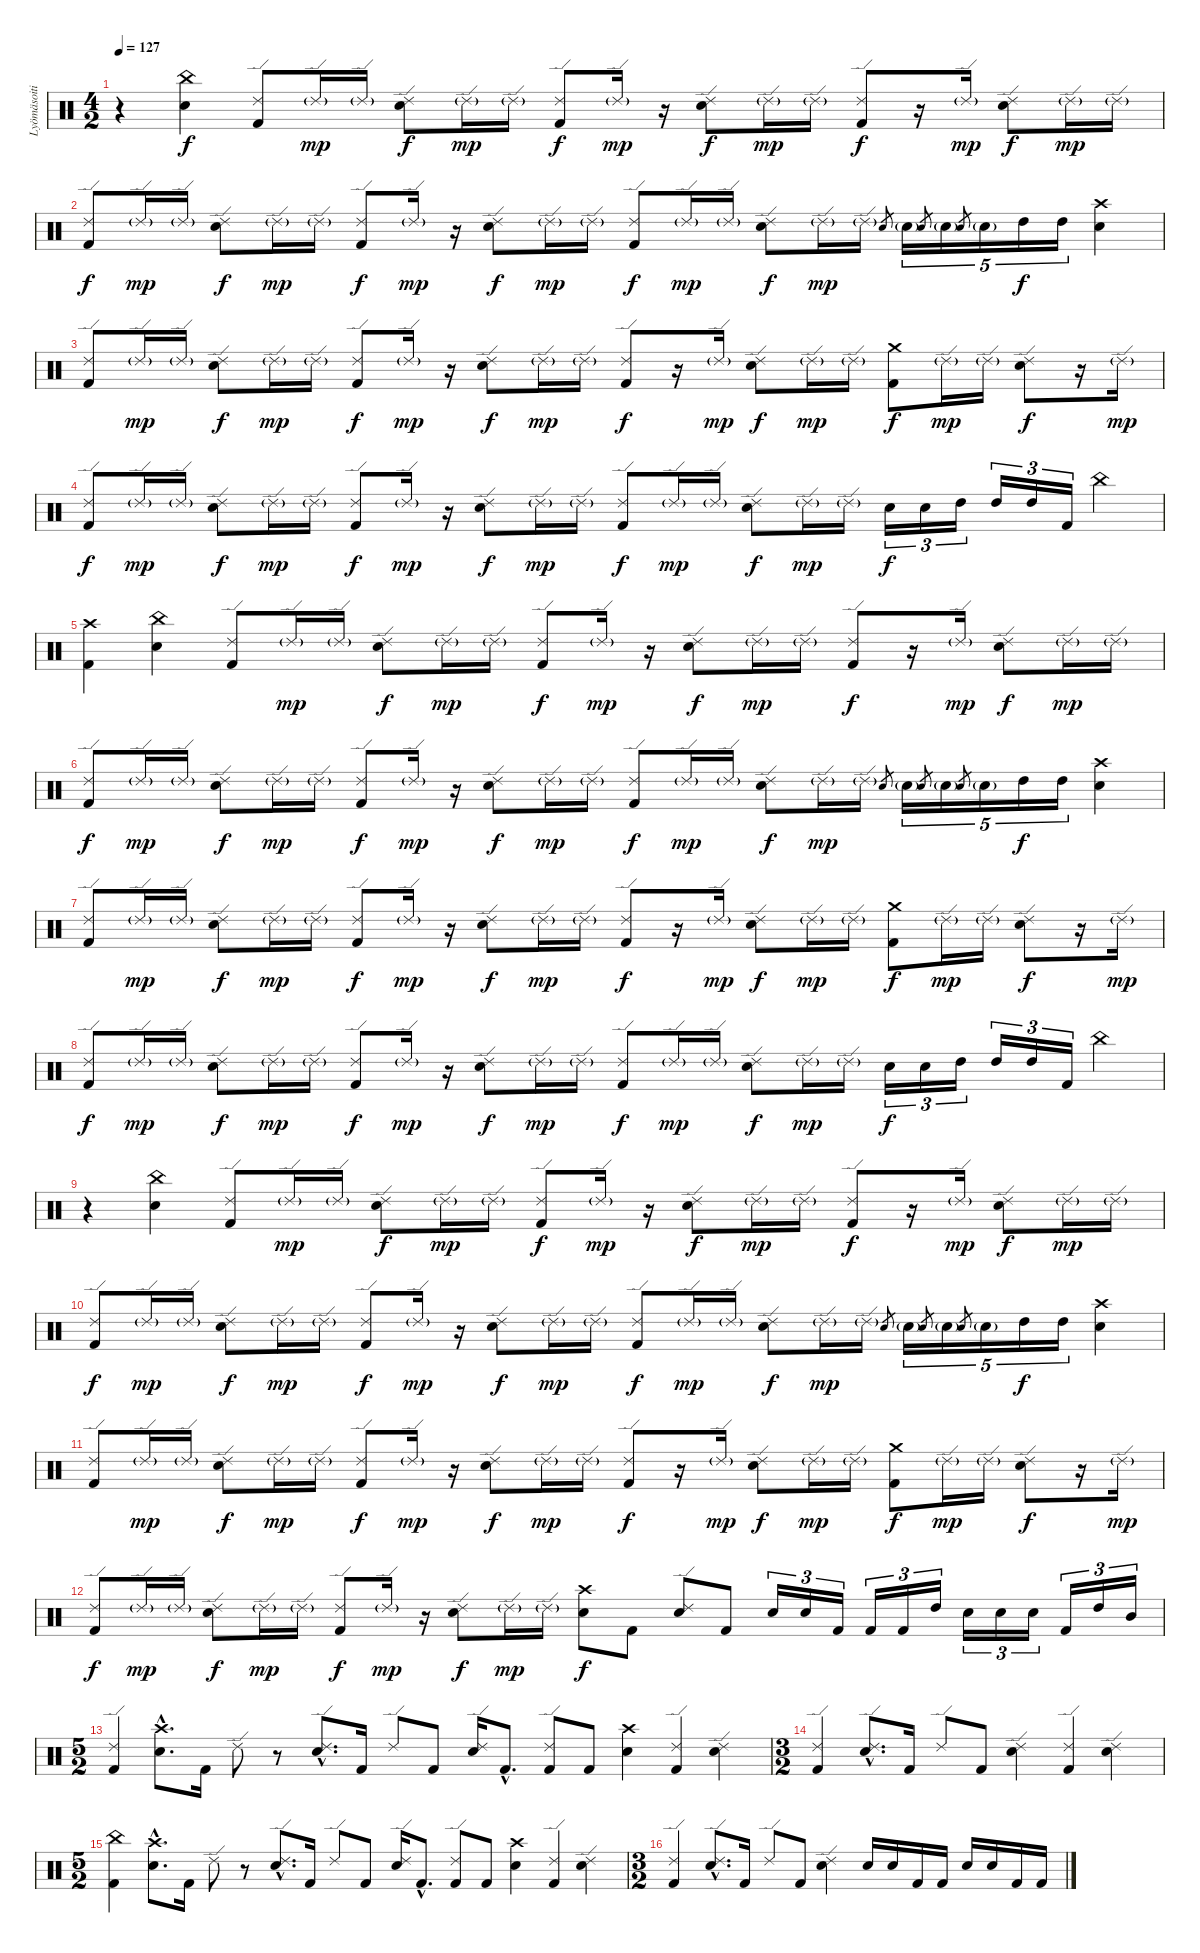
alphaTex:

\track ("Lyömäsoitin" "Lyömäsoiti") {instrument percussion}
\staff {score}
\articulation defaults
\ts (4 2)
\tempo 127
\clef neutral
\ks c
r.4{dy f} ("China (hit)" "Electric Snare (hit)").4 ("Ride (edge) 2" "Kick (hit) 2").8 "Ride (edge) 2"{g}.16{dy mp} "Ride (edge) 2"{g}.16 ("Ride (edge) 2" "Electric Snare (hit)").8{dy f} "Ride (edge) 2"{g}.16{dy mp} "Ride (edge) 2"{g}.16 ("Ride (edge) 2" "Kick (hit) 2").8{dy f} "Ride (edge) 2"{g}.16{dy mp} r.16 ("Ride (edge) 2" "Electric Snare (hit)").8{dy f} "Ride (edge) 2"{g}.16{dy mp} "Ride (edge) 2"{g}.16 ("Ride (edge) 2" "Kick (hit) 2").8{dy f} r.16 "Ride (edge) 2"{g}.16{dy mp} ("Ride (edge) 2" "Electric Snare (hit)").8{dy f} "Ride (edge) 2"{g}.16{dy mp} "Ride (edge) 2"{g}.16 |
("Ride (edge) 2" "Kick (hit) 2").8{dy f} "Ride (edge) 2"{g}.16{dy mp} "Ride (edge) 2"{g}.16 ("Ride (edge) 2" "Electric Snare (hit)").8{dy f} "Ride (edge) 2"{g}.16{dy mp} "Ride (edge) 2"{g}.16 ("Ride (edge) 2" "Kick (hit) 2").8{dy f} "Ride (edge) 2"{g}.16{dy mp} r.16 ("Ride (edge) 2" "Electric Snare (hit)").8{dy f} "Ride (edge) 2"{g}.16{dy mp} "Ride (edge) 2"{g}.16 ("Ride (edge) 2" "Kick (hit) 2").8{dy f} "Ride (edge) 2"{g}.16{dy mp} "Ride (edge) 2"{g}.16 ("Ride (edge) 2" "Electric Snare (hit)").8{dy f} "Ride (edge) 2"{g}.16{dy mp} "Ride (edge) 2"{g}.16 "Electric Snare (hit)".8{gr} "Electric Snare (hit)"{g}.16{tu (5 4)} "Electric Snare (hit)".8{gr} "Electric Snare (hit)"{g}.16{tu (5 4)} "Electric Snare (hit)".8{gr} "Electric Snare (hit)"{g}.16{tu (5 4)} "High Tom (hit)".16{tu (5 4) dy f} "High Tom (hit)".16{tu (5 4)} ("Crash high (hit)" "Electric Snare (hit)").4 |
("Ride (edge) 2" "Kick (hit) 2").8 "Ride (edge) 2"{g}.16{dy mp} "Ride (edge) 2"{g}.16 ("Ride (edge) 2" "Electric Snare (hit)").8{dy f} "Ride (edge) 2"{g}.16{dy mp} "Ride (edge) 2"{g}.16 ("Ride (edge) 2" "Kick (hit) 2").8{dy f} "Ride (edge) 2"{g}.16{dy mp} r.16 ("Ride (edge) 2" "Electric Snare (hit)").8{dy f} "Ride (edge) 2"{g}.16{dy mp} "Ride (edge) 2"{g}.16 ("Ride (edge) 2" "Kick (hit) 2").8{dy f} r.16 "Ride (edge) 2"{g}.16{dy mp} ("Ride (edge) 2" "Electric Snare (hit)").8{dy f} "Ride (edge) 2"{g}.16{dy mp} "Ride (edge) 2"{g}.16 ("Crash medium (hit)" "Kick (hit) 2").8{dy f} "Ride (edge) 2"{g}.16{dy mp} "Ride (edge) 2"{g}.16 ("Ride (edge) 2" "Electric Snare (hit)").8{dy f} r.16 "Ride (edge) 2"{g}.16{dy mp} |
("Ride (edge) 2" "Kick (hit) 2").8{dy f} "Ride (edge) 2"{g}.16{dy mp} "Ride (edge) 2"{g}.16 ("Ride (edge) 2" "Electric Snare (hit)").8{dy f} "Ride (edge) 2"{g}.16{dy mp} "Ride (edge) 2"{g}.16 ("Ride (edge) 2" "Kick (hit) 2").8{dy f} "Ride (edge) 2"{g}.16{dy mp} r.16 ("Ride (edge) 2" "Electric Snare (hit)").8{dy f} "Ride (edge) 2"{g}.16{dy mp} "Ride (edge) 2"{g}.16 ("Ride (edge) 2" "Kick (hit) 2").8{dy f} "Ride (edge) 2"{g}.16{dy mp} "Ride (edge) 2"{g}.16 ("Ride (edge) 2" "Electric Snare (hit)").8{dy f} "Ride (edge) 2"{g}.16{dy mp} "Ride (edge) 2"{g}.16 "Electric Snare (hit)".16{tu (3 2) dy f} "Electric Snare (hit)".16{tu (3 2)} "High Tom (hit)".16{tu (3 2)} "High Tom (hit)".16{tu (3 2)} "High Tom (hit)".16{tu (3 2)} "Kick (hit) 2".16{tu (3 2)} "China (hit)".4 |
("Crash high (hit)" "Kick (hit) 2").4 ("China (hit)" "Electric Snare (hit)").4 ("Ride (edge) 2" "Kick (hit) 2").8 "Ride (edge) 2"{g}.16{dy mp} "Ride (edge) 2"{g}.16 ("Ride (edge) 2" "Electric Snare (hit)").8{dy f} "Ride (edge) 2"{g}.16{dy mp} "Ride (edge) 2"{g}.16 ("Ride (edge) 2" "Kick (hit) 2").8{dy f} "Ride (edge) 2"{g}.16{dy mp} r.16 ("Ride (edge) 2" "Electric Snare (hit)").8{dy f} "Ride (edge) 2"{g}.16{dy mp} "Ride (edge) 2"{g}.16 ("Ride (edge) 2" "Kick (hit) 2").8{dy f} r.16 "Ride (edge) 2"{g}.16{dy mp} ("Ride (edge) 2" "Electric Snare (hit)").8{dy f} "Ride (edge) 2"{g}.16{dy mp} "Ride (edge) 2"{g}.16 |
("Ride (edge) 2" "Kick (hit) 2").8{dy f} "Ride (edge) 2"{g}.16{dy mp} "Ride (edge) 2"{g}.16 ("Ride (edge) 2" "Electric Snare (hit)").8{dy f} "Ride (edge) 2"{g}.16{dy mp} "Ride (edge) 2"{g}.16 ("Ride (edge) 2" "Kick (hit) 2").8{dy f} "Ride (edge) 2"{g}.16{dy mp} r.16 ("Ride (edge) 2" "Electric Snare (hit)").8{dy f} "Ride (edge) 2"{g}.16{dy mp} "Ride (edge) 2"{g}.16 ("Ride (edge) 2" "Kick (hit) 2").8{dy f} "Ride (edge) 2"{g}.16{dy mp} "Ride (edge) 2"{g}.16 ("Ride (edge) 2" "Electric Snare (hit)").8{dy f} "Ride (edge) 2"{g}.16{dy mp} "Ride (edge) 2"{g}.16 "Electric Snare (hit)".8{gr} "Electric Snare (hit)"{g}.16{tu (5 4)} "Electric Snare (hit)".8{gr} "Electric Snare (hit)"{g}.16{tu (5 4)} "Electric Snare (hit)".8{gr} "Electric Snare (hit)"{g}.16{tu (5 4)} "High Tom (hit)".16{tu (5 4) dy f} "High Tom (hit)".16{tu (5 4)} ("Crash high (hit)" "Electric Snare (hit)").4 |
("Ride (edge) 2" "Kick (hit) 2").8 "Ride (edge) 2"{g}.16{dy mp} "Ride (edge) 2"{g}.16 ("Ride (edge) 2" "Electric Snare (hit)").8{dy f} "Ride (edge) 2"{g}.16{dy mp} "Ride (edge) 2"{g}.16 ("Ride (edge) 2" "Kick (hit) 2").8{dy f} "Ride (edge) 2"{g}.16{dy mp} r.16 ("Ride (edge) 2" "Electric Snare (hit)").8{dy f} "Ride (edge) 2"{g}.16{dy mp} "Ride (edge) 2"{g}.16 ("Ride (edge) 2" "Kick (hit) 2").8{dy f} r.16 "Ride (edge) 2"{g}.16{dy mp} ("Ride (edge) 2" "Electric Snare (hit)").8{dy f} "Ride (edge) 2"{g}.16{dy mp} "Ride (edge) 2"{g}.16 ("Crash medium (hit)" "Kick (hit) 2").8{dy f} "Ride (edge) 2"{g}.16{dy mp} "Ride (edge) 2"{g}.16 ("Ride (edge) 2" "Electric Snare (hit)").8{dy f} r.16 "Ride (edge) 2"{g}.16{dy mp} |
("Ride (edge) 2" "Kick (hit) 2").8{dy f} "Ride (edge) 2"{g}.16{dy mp} "Ride (edge) 2"{g}.16 ("Ride (edge) 2" "Electric Snare (hit)").8{dy f} "Ride (edge) 2"{g}.16{dy mp} "Ride (edge) 2"{g}.16 ("Ride (edge) 2" "Kick (hit) 2").8{dy f} "Ride (edge) 2"{g}.16{dy mp} r.16 ("Ride (edge) 2" "Electric Snare (hit)").8{dy f} "Ride (edge) 2"{g}.16{dy mp} "Ride (edge) 2"{g}.16 ("Ride (edge) 2" "Kick (hit) 2").8{dy f} "Ride (edge) 2"{g}.16{dy mp} "Ride (edge) 2"{g}.16 ("Ride (edge) 2" "Electric Snare (hit)").8{dy f} "Ride (edge) 2"{g}.16{dy mp} "Ride (edge) 2"{g}.16 "Electric Snare (hit)".16{tu (3 2) dy f} "Electric Snare (hit)".16{tu (3 2)} "High Tom (hit)".16{tu (3 2)} "High Tom (hit)".16{tu (3 2)} "High Tom (hit)".16{tu (3 2)} "Kick (hit) 2".16{tu (3 2)} "China (hit)".4 |
r.4 ("China (hit)" "Electric Snare (hit)").4 ("Ride (edge) 2" "Kick (hit) 2").8 "Ride (edge) 2"{g}.16{dy mp} "Ride (edge) 2"{g}.16 ("Ride (edge) 2" "Electric Snare (hit)").8{dy f} "Ride (edge) 2"{g}.16{dy mp} "Ride (edge) 2"{g}.16 ("Ride (edge) 2" "Kick (hit) 2").8{dy f} "Ride (edge) 2"{g}.16{dy mp} r.16 ("Ride (edge) 2" "Electric Snare (hit)").8{dy f} "Ride (edge) 2"{g}.16{dy mp} "Ride (edge) 2"{g}.16 ("Ride (edge) 2" "Kick (hit) 2").8{dy f} r.16 "Ride (edge) 2"{g}.16{dy mp} ("Ride (edge) 2" "Electric Snare (hit)").8{dy f} "Ride (edge) 2"{g}.16{dy mp} "Ride (edge) 2"{g}.16 |
("Ride (edge) 2" "Kick (hit) 2").8{dy f} "Ride (edge) 2"{g}.16{dy mp} "Ride (edge) 2"{g}.16 ("Ride (edge) 2" "Electric Snare (hit)").8{dy f} "Ride (edge) 2"{g}.16{dy mp} "Ride (edge) 2"{g}.16 ("Ride (edge) 2" "Kick (hit) 2").8{dy f} "Ride (edge) 2"{g}.16{dy mp} r.16 ("Ride (edge) 2" "Electric Snare (hit)").8{dy f} "Ride (edge) 2"{g}.16{dy mp} "Ride (edge) 2"{g}.16 ("Ride (edge) 2" "Kick (hit) 2").8{dy f} "Ride (edge) 2"{g}.16{dy mp} "Ride (edge) 2"{g}.16 ("Ride (edge) 2" "Electric Snare (hit)").8{dy f} "Ride (edge) 2"{g}.16{dy mp} "Ride (edge) 2"{g}.16 "Electric Snare (hit)".8{gr} "Electric Snare (hit)"{g}.16{tu (5 4)} "Electric Snare (hit)".8{gr} "Electric Snare (hit)"{g}.16{tu (5 4)} "Electric Snare (hit)".8{gr} "Electric Snare (hit)"{g}.16{tu (5 4)} "High Tom (hit)".16{tu (5 4) dy f} "High Tom (hit)".16{tu (5 4)} ("Crash high (hit)" "Electric Snare (hit)").4 |
("Ride (edge) 2" "Kick (hit) 2").8 "Ride (edge) 2"{g}.16{dy mp} "Ride (edge) 2"{g}.16 ("Ride (edge) 2" "Electric Snare (hit)").8{dy f} "Ride (edge) 2"{g}.16{dy mp} "Ride (edge) 2"{g}.16 ("Ride (edge) 2" "Kick (hit) 2").8{dy f} "Ride (edge) 2"{g}.16{dy mp} r.16 ("Ride (edge) 2" "Electric Snare (hit)").8{dy f} "Ride (edge) 2"{g}.16{dy mp} "Ride (edge) 2"{g}.16 ("Ride (edge) 2" "Kick (hit) 2").8{dy f} r.16 "Ride (edge) 2"{g}.16{dy mp} ("Ride (edge) 2" "Electric Snare (hit)").8{dy f} "Ride (edge) 2"{g}.16{dy mp} "Ride (edge) 2"{g}.16 ("Crash medium (hit)" "Kick (hit) 2").8{dy f} "Ride (edge) 2"{g}.16{dy mp} "Ride (edge) 2"{g}.16 ("Ride (edge) 2" "Electric Snare (hit)").8{dy f} r.16 "Ride (edge) 2"{g}.16{dy mp} |
("Ride (edge) 2" "Kick (hit) 2").8{dy f} "Ride (edge) 2"{g}.16{dy mp} "Ride (edge) 2"{g}.16 ("Ride (edge) 2" "Electric Snare (hit)").8{dy f} "Ride (edge) 2"{g}.16{dy mp} "Ride (edge) 2"{g}.16 ("Ride (edge) 2" "Kick (hit) 2").8{dy f} "Ride (edge) 2"{g}.16{dy mp} r.16 ("Ride (edge) 2" "Electric Snare (hit)").8{dy f} "Ride (edge) 2"{g}.16{dy mp} "Ride (edge) 2"{g}.16 ("Crash high (hit)" "Electric Snare (hit)").8{dy f} "Kick (hit) 2".8 ("Ride (edge) 2" "Electric Snare (hit)").8 "Kick (hit) 2".8 "Electric Snare (hit)".16{tu (3 2)} "Electric Snare (hit)".16{tu (3 2)} "Kick (hit) 2".16{tu (3 2)} "Kick (hit) 2".16{tu (3 2)} "Kick (hit) 2".16{tu (3 2)} "High Tom (hit)".16{tu (3 2)} "Electric Snare (hit)".16{tu (3 2)} "Electric Snare (hit)".16{tu (3 2)} "Electric Snare (hit)".16{tu (3 2)} "Kick (hit) 2".16{tu (3 2)} "High Tom (hit)".16{tu (3 2)} "Mid Tom (hit)".16{tu (3 2)} |
\ts (5 2)
("Ride (edge) 2" "Kick (hit) 2").4 ("Crash high (hit)"{hac} "Electric Snare (hit)"{hac}).8{d} "Kick (hit) 2".16 "Ride (edge) 2".8 r.8 ("Ride (edge) 2"{hac} "Electric Snare (hit)"{hac}).8{d} "Kick (hit) 2".16 "Ride (edge) 2".8 "Kick (hit) 2".8 ("Ride (edge) 2" "Electric Snare (hit)").16 "Kick (hit) 2"{hac}.8{d} ("Ride (edge) 2" "Kick (hit) 2").8 "Kick (hit) 2".8 ("Crash high (hit)" "Electric Snare (hit)").4 ("Kick (hit) 2" "Ride (edge) 2").4 ("Ride (edge) 2" "Electric Snare (hit)").4 |
\ts (3 2)
("Ride (edge) 2" "Kick (hit) 2").4 ("Ride (edge) 2"{hac} "Electric Snare (hit)"{hac}).8{d} "Kick (hit) 2".16 "Ride (edge) 2".8 "Kick (hit) 2".8 ("Ride (edge) 2" "Electric Snare (hit)").4 ("Ride (edge) 2" "Kick (hit) 2").4 ("Ride (edge) 2" "Electric Snare (hit)").4 |
\ts (5 2)
("China (hit)" "Kick (hit) 2").4 ("Crash high (hit)"{hac} "Electric Snare (hit)"{hac}).8{d} "Kick (hit) 2".16 "Ride (edge) 2".8 r.8 ("Ride (edge) 2"{hac} "Electric Snare (hit)"{hac}).8{d} "Kick (hit) 2".16 "Ride (edge) 2".8 "Kick (hit) 2".8 ("Ride (edge) 2" "Electric Snare (hit)").16 "Kick (hit) 2"{hac}.8{d} ("Ride (edge) 2" "Kick (hit) 2").8 "Kick (hit) 2".8 ("Crash high (hit)" "Electric Snare (hit)").4 ("Kick (hit) 2" "Ride (edge) 2").4 ("Ride (edge) 2" "Electric Snare (hit)").4 |
\ts (3 2)
("Ride (edge) 2" "Kick (hit) 2").4 ("Ride (edge) 2"{hac} "Electric Snare (hit)"{hac}).8{d} "Kick (hit) 2".16 "Ride (edge) 2".8 "Kick (hit) 2".8 ("Ride (edge) 2" "Electric Snare (hit)").4 "Electric Snare (hit)".16 "Electric Snare (hit)".16 "Kick (hit) 2".16 "Kick (hit) 2".16 "Electric Snare (hit)".16 "Electric Snare (hit)".16 "Kick (hit) 2".16 "Kick (hit) 2".16
